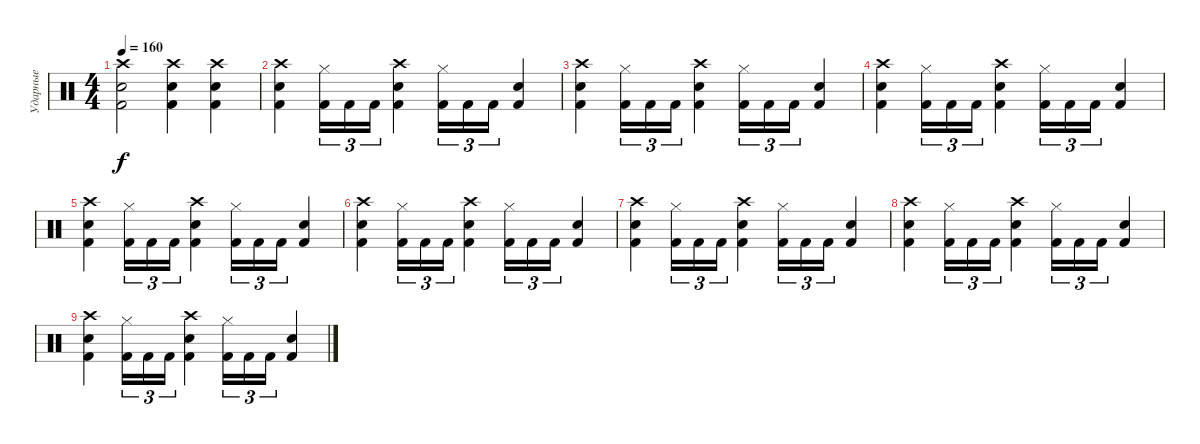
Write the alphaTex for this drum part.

\track ("Ударные" "Ударные") {instrument percussion}
\staff {score}
\articulation defaults
\ts (4 4)
\tempo 160
\clef neutral
\ks c
("Crash high (hit)" "Snare (hit) 2" "Kick (hit) 2").2{dy f} ("Crash high (hit)" "Snare (hit) 2" "Kick (hit) 2").4 ("Kick (hit) 2" "Snare (hit) 2" "Crash high (hit)").4 |
("Kick (hit) 2" "Crash high (hit)" "Snare (hit) 2").4 ("Hi-Hat (closed)" "Kick (hit) 2").16{tu (3 2)} "Kick (hit) 2".16{tu (3 2)} "Kick (hit) 2".16{tu (3 2)} ("Crash high (hit)" "Snare (hit) 2" "Kick (hit) 2").4 ("Hi-Hat (closed)" "Kick (hit) 2").16{tu (3 2)} "Kick (hit) 2".16{tu (3 2)} "Kick (hit) 2".16{tu (3 2)} ("Snare (hit) 2" "Kick (hit) 2").4 |
("Kick (hit) 2" "Crash high (hit)" "Snare (hit) 2").4 ("Hi-Hat (closed)" "Kick (hit) 2").16{tu (3 2)} "Kick (hit) 2".16{tu (3 2)} "Kick (hit) 2".16{tu (3 2)} ("Crash high (hit)" "Snare (hit) 2" "Kick (hit) 2").4 ("Hi-Hat (closed)" "Kick (hit) 2").16{tu (3 2)} "Kick (hit) 2".16{tu (3 2)} "Kick (hit) 2".16{tu (3 2)} ("Snare (hit) 2" "Kick (hit) 2").4 |
("Kick (hit) 2" "Crash high (hit)" "Snare (hit) 2").4 ("Hi-Hat (closed)" "Kick (hit) 2").16{tu (3 2)} "Kick (hit) 2".16{tu (3 2)} "Kick (hit) 2".16{tu (3 2)} ("Crash high (hit)" "Snare (hit) 2" "Kick (hit) 2").4 ("Hi-Hat (closed)" "Kick (hit) 2").16{tu (3 2)} "Kick (hit) 2".16{tu (3 2)} "Kick (hit) 2".16{tu (3 2)} ("Snare (hit) 2" "Kick (hit) 2").4 |
("Kick (hit) 2" "Crash high (hit)" "Snare (hit) 2").4 ("Hi-Hat (closed)" "Kick (hit) 2").16{tu (3 2)} "Kick (hit) 2".16{tu (3 2)} "Kick (hit) 2".16{tu (3 2)} ("Crash high (hit)" "Snare (hit) 2" "Kick (hit) 2").4 ("Hi-Hat (closed)" "Kick (hit) 2").16{tu (3 2)} "Kick (hit) 2".16{tu (3 2)} "Kick (hit) 2".16{tu (3 2)} ("Snare (hit) 2" "Kick (hit) 2").4 |
("Kick (hit) 2" "Crash high (hit)" "Snare (hit) 2").4 ("Hi-Hat (closed)" "Kick (hit) 2").16{tu (3 2)} "Kick (hit) 2".16{tu (3 2)} "Kick (hit) 2".16{tu (3 2)} ("Crash high (hit)" "Snare (hit) 2" "Kick (hit) 2").4 ("Hi-Hat (closed)" "Kick (hit) 2").16{tu (3 2)} "Kick (hit) 2".16{tu (3 2)} "Kick (hit) 2".16{tu (3 2)} ("Snare (hit) 2" "Kick (hit) 2").4 |
("Kick (hit) 2" "Crash high (hit)" "Snare (hit) 2").4 ("Hi-Hat (closed)" "Kick (hit) 2").16{tu (3 2)} "Kick (hit) 2".16{tu (3 2)} "Kick (hit) 2".16{tu (3 2)} ("Crash high (hit)" "Snare (hit) 2" "Kick (hit) 2").4 ("Hi-Hat (closed)" "Kick (hit) 2").16{tu (3 2)} "Kick (hit) 2".16{tu (3 2)} "Kick (hit) 2".16{tu (3 2)} ("Snare (hit) 2" "Kick (hit) 2").4 |
("Kick (hit) 2" "Crash high (hit)" "Snare (hit) 2").4 ("Hi-Hat (closed)" "Kick (hit) 2").16{tu (3 2)} "Kick (hit) 2".16{tu (3 2)} "Kick (hit) 2".16{tu (3 2)} ("Crash high (hit)" "Snare (hit) 2" "Kick (hit) 2").4 ("Hi-Hat (closed)" "Kick (hit) 2").16{tu (3 2)} "Kick (hit) 2".16{tu (3 2)} "Kick (hit) 2".16{tu (3 2)} ("Snare (hit) 2" "Kick (hit) 2").4 |
("Kick (hit) 2" "Crash high (hit)" "Snare (hit) 2").4 ("Hi-Hat (closed)" "Kick (hit) 2").16{tu (3 2)} "Kick (hit) 2".16{tu (3 2)} "Kick (hit) 2".16{tu (3 2)} ("Crash high (hit)" "Snare (hit) 2" "Kick (hit) 2").4 ("Hi-Hat (closed)" "Kick (hit) 2").16{tu (3 2)} "Kick (hit) 2".16{tu (3 2)} "Kick (hit) 2".16{tu (3 2)} ("Snare (hit) 2" "Kick (hit) 2").4
